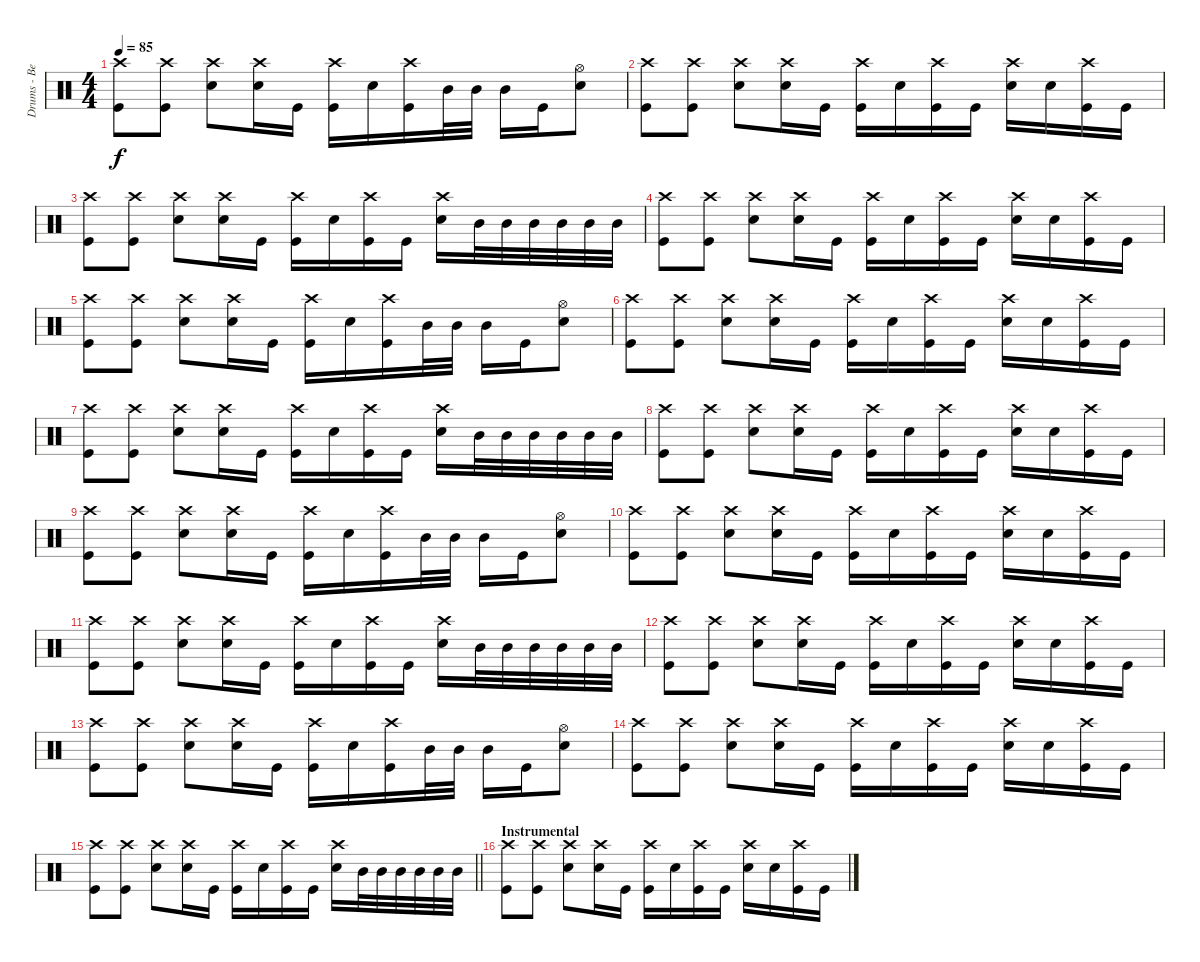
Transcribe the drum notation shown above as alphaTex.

\track ("Drums - Ben Johnston" "Drums - Be") {instrument percussion}
\staff {score}
\articulation defaults
\ts (4 4)
\tempo 85
\clef neutral
\ks c
("Crash high (hit)" "Kick (hit)").8{dy f} ("Crash high (hit)" "Kick (hit)").8 ("Crash high (hit)" "Snare (hit) 2").8 ("Crash high (hit)" "Snare (hit) 2").16 "Kick (hit)".16 ("Crash high (hit)" "Kick (hit)").16 "Snare (hit) 2".16 ("Crash high (hit)" "Kick (hit)").16 "Mid Tom (hit)".32 "Mid Tom (hit)".32 "Mid Tom (hit)".16 "Kick (hit)".16 ("Hi-Hat (open)" "Snare (hit) 2").8 |
("Crash high (hit)" "Kick (hit)").8 ("Crash high (hit)" "Kick (hit)").8 ("Crash high (hit)" "Snare (hit) 2").8 ("Crash high (hit)" "Snare (hit) 2").16 "Kick (hit)".16 ("Crash high (hit)" "Kick (hit)").16 "Snare (hit) 2".16 ("Crash high (hit)" "Kick (hit)").16 "Kick (hit)".16 ("Crash high (hit)" "Snare (hit) 2").16 "Snare (hit) 2".16 ("Crash high (hit)" "Kick (hit)").16 "Kick (hit)".16 |
("Crash high (hit)" "Kick (hit)").8 ("Crash high (hit)" "Kick (hit)").8 ("Crash high (hit)" "Snare (hit) 2").8 ("Crash high (hit)" "Snare (hit) 2").16 "Kick (hit)".16 ("Crash high (hit)" "Kick (hit)").16 "Snare (hit) 2".16 ("Crash high (hit)" "Kick (hit)").16 "Kick (hit)".16 ("Crash high (hit)" "Snare (hit) 2").16 "Mid Tom (hit)".32 "Mid Tom (hit)".32 "Mid Tom (hit)".32 "Mid Tom (hit)".32 "Mid Tom (hit)".32 "Mid Tom (hit)".32 |
("Crash high (hit)" "Kick (hit)").8 ("Crash high (hit)" "Kick (hit)").8 ("Crash high (hit)" "Snare (hit) 2").8 ("Crash high (hit)" "Snare (hit) 2").16 "Kick (hit)".16 ("Crash high (hit)" "Kick (hit)").16 "Snare (hit) 2".16 ("Crash high (hit)" "Kick (hit)").16 "Kick (hit)".16 ("Crash high (hit)" "Snare (hit) 2").16 "Snare (hit) 2".16 ("Crash high (hit)" "Kick (hit)").16 "Kick (hit)".16 |
("Crash high (hit)" "Kick (hit)").8 ("Crash high (hit)" "Kick (hit)").8 ("Crash high (hit)" "Snare (hit) 2").8 ("Crash high (hit)" "Snare (hit) 2").16 "Kick (hit)".16 ("Crash high (hit)" "Kick (hit)").16 "Snare (hit) 2".16 ("Crash high (hit)" "Kick (hit)").16 "Mid Tom (hit)".32 "Mid Tom (hit)".32 "Mid Tom (hit)".16 "Kick (hit)".16 ("Hi-Hat (open)" "Snare (hit) 2").8 |
("Crash high (hit)" "Kick (hit)").8 ("Crash high (hit)" "Kick (hit)").8 ("Crash high (hit)" "Snare (hit) 2").8 ("Crash high (hit)" "Snare (hit) 2").16 "Kick (hit)".16 ("Crash high (hit)" "Kick (hit)").16 "Snare (hit) 2".16 ("Crash high (hit)" "Kick (hit)").16 "Kick (hit)".16 ("Crash high (hit)" "Snare (hit) 2").16 "Snare (hit) 2".16 ("Crash high (hit)" "Kick (hit)").16 "Kick (hit)".16 |
("Crash high (hit)" "Kick (hit)").8 ("Crash high (hit)" "Kick (hit)").8 ("Crash high (hit)" "Snare (hit) 2").8 ("Crash high (hit)" "Snare (hit) 2").16 "Kick (hit)".16 ("Crash high (hit)" "Kick (hit)").16 "Snare (hit) 2".16 ("Crash high (hit)" "Kick (hit)").16 "Kick (hit)".16 ("Crash high (hit)" "Snare (hit) 2").16 "Mid Tom (hit)".32 "Mid Tom (hit)".32 "Mid Tom (hit)".32 "Mid Tom (hit)".32 "Mid Tom (hit)".32 "Mid Tom (hit)".32 |
("Crash high (hit)" "Kick (hit)").8 ("Crash high (hit)" "Kick (hit)").8 ("Crash high (hit)" "Snare (hit) 2").8 ("Crash high (hit)" "Snare (hit) 2").16 "Kick (hit)".16 ("Crash high (hit)" "Kick (hit)").16 "Snare (hit) 2".16 ("Crash high (hit)" "Kick (hit)").16 "Kick (hit)".16 ("Crash high (hit)" "Snare (hit) 2").16 "Snare (hit) 2".16 ("Crash high (hit)" "Kick (hit)").16 "Kick (hit)".16 |
("Crash high (hit)" "Kick (hit)").8 ("Crash high (hit)" "Kick (hit)").8 ("Crash high (hit)" "Snare (hit) 2").8 ("Crash high (hit)" "Snare (hit) 2").16 "Kick (hit)".16 ("Crash high (hit)" "Kick (hit)").16 "Snare (hit) 2".16 ("Crash high (hit)" "Kick (hit)").16 "Mid Tom (hit)".32 "Mid Tom (hit)".32 "Mid Tom (hit)".16 "Kick (hit)".16 ("Hi-Hat (open)" "Snare (hit) 2").8 |
("Crash high (hit)" "Kick (hit)").8 ("Crash high (hit)" "Kick (hit)").8 ("Crash high (hit)" "Snare (hit) 2").8 ("Crash high (hit)" "Snare (hit) 2").16 "Kick (hit)".16 ("Crash high (hit)" "Kick (hit)").16 "Snare (hit) 2".16 ("Crash high (hit)" "Kick (hit)").16 "Kick (hit)".16 ("Crash high (hit)" "Snare (hit) 2").16 "Snare (hit) 2".16 ("Crash high (hit)" "Kick (hit)").16 "Kick (hit)".16 |
("Crash high (hit)" "Kick (hit)").8 ("Crash high (hit)" "Kick (hit)").8 ("Crash high (hit)" "Snare (hit) 2").8 ("Crash high (hit)" "Snare (hit) 2").16 "Kick (hit)".16 ("Crash high (hit)" "Kick (hit)").16 "Snare (hit) 2".16 ("Crash high (hit)" "Kick (hit)").16 "Kick (hit)".16 ("Crash high (hit)" "Snare (hit) 2").16 "Mid Tom (hit)".32 "Mid Tom (hit)".32 "Mid Tom (hit)".32 "Mid Tom (hit)".32 "Mid Tom (hit)".32 "Mid Tom (hit)".32 |
("Crash high (hit)" "Kick (hit)").8 ("Crash high (hit)" "Kick (hit)").8 ("Crash high (hit)" "Snare (hit) 2").8 ("Crash high (hit)" "Snare (hit) 2").16 "Kick (hit)".16 ("Crash high (hit)" "Kick (hit)").16 "Snare (hit) 2".16 ("Crash high (hit)" "Kick (hit)").16 "Kick (hit)".16 ("Crash high (hit)" "Snare (hit) 2").16 "Snare (hit) 2".16 ("Crash high (hit)" "Kick (hit)").16 "Kick (hit)".16 |
("Crash high (hit)" "Kick (hit)").8 ("Crash high (hit)" "Kick (hit)").8 ("Crash high (hit)" "Snare (hit) 2").8 ("Crash high (hit)" "Snare (hit) 2").16 "Kick (hit)".16 ("Crash high (hit)" "Kick (hit)").16 "Snare (hit) 2".16 ("Crash high (hit)" "Kick (hit)").16 "Mid Tom (hit)".32 "Mid Tom (hit)".32 "Mid Tom (hit)".16 "Kick (hit)".16 ("Hi-Hat (open)" "Snare (hit) 2").8 |
("Crash high (hit)" "Kick (hit)").8 ("Crash high (hit)" "Kick (hit)").8 ("Crash high (hit)" "Snare (hit) 2").8 ("Crash high (hit)" "Snare (hit) 2").16 "Kick (hit)".16 ("Crash high (hit)" "Kick (hit)").16 "Snare (hit) 2".16 ("Crash high (hit)" "Kick (hit)").16 "Kick (hit)".16 ("Crash high (hit)" "Snare (hit) 2").16 "Snare (hit) 2".16 ("Crash high (hit)" "Kick (hit)").16 "Kick (hit)".16 |
\barLineRight lightlight
("Crash high (hit)" "Kick (hit)").8 ("Crash high (hit)" "Kick (hit)").8 ("Crash high (hit)" "Snare (hit) 2").8 ("Crash high (hit)" "Snare (hit) 2").16 "Kick (hit)".16 ("Crash high (hit)" "Kick (hit)").16 "Snare (hit) 2".16 ("Crash high (hit)" "Kick (hit)").16 "Kick (hit)".16 ("Crash high (hit)" "Snare (hit) 2").16 "Mid Tom (hit)".32 "Mid Tom (hit)".32 "Mid Tom (hit)".32 "Mid Tom (hit)".32 "Mid Tom (hit)".32 "Mid Tom (hit)".32 |
\section ("" "Instrumental")
("Crash high (hit)" "Kick (hit)").8 ("Crash high (hit)" "Kick (hit)").8 ("Crash high (hit)" "Snare (hit) 2").8 ("Crash high (hit)" "Snare (hit) 2").16 "Kick (hit)".16 ("Crash high (hit)" "Kick (hit)").16 "Snare (hit) 2".16 ("Crash high (hit)" "Kick (hit)").16 "Kick (hit)".16 ("Crash high (hit)" "Snare (hit) 2").16 "Snare (hit) 2".16 ("Crash high (hit)" "Kick (hit)").16 "Kick (hit)".16
